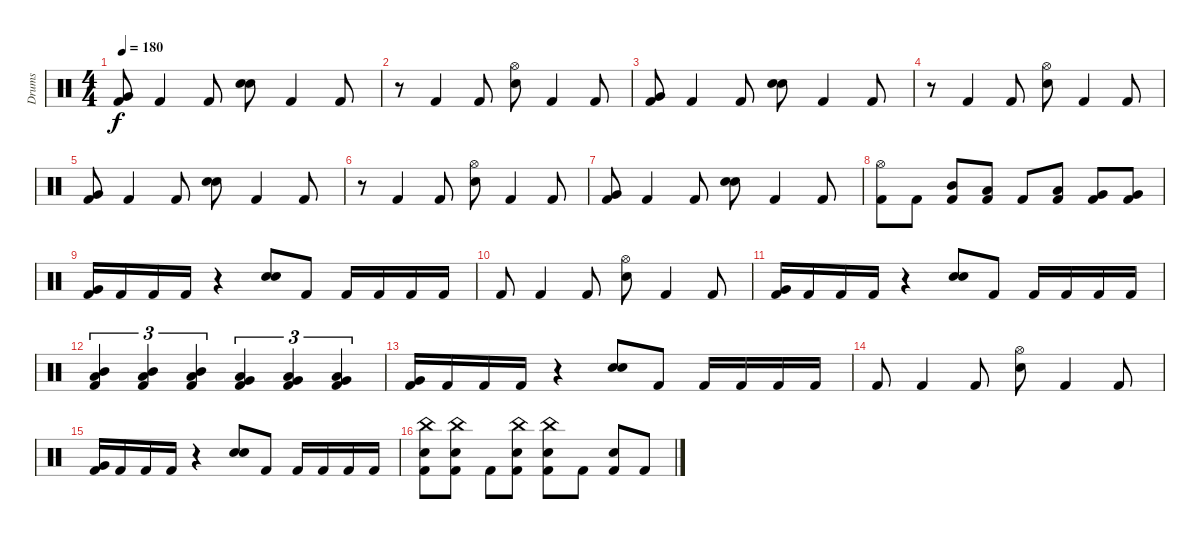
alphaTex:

\track ("Drums" "Drums") {instrument percussion}
\staff {score}
\articulation defaults
\ts (4 4)
\tempo 180
\clef neutral
\ks c
("Very Low Tom (hit)" "Kick (hit) 2").8{dy f} "Kick (hit) 2".4 "Kick (hit) 2".8 ("Electric Snare (hit)" "Electric Snare (hit)").8 "Kick (hit) 2".4 "Kick (hit) 2".8 |
r.8 "Kick (hit) 2".4 "Kick (hit) 2".8 ("Hi-Hat (open)" "Electric Snare (hit)").8 "Kick (hit) 2".4 "Kick (hit) 2".8 |
("Very Low Tom (hit)" "Kick (hit) 2").8 "Kick (hit) 2".4 "Kick (hit) 2".8 ("Electric Snare (hit)" "Electric Snare (hit)").8 "Kick (hit) 2".4 "Kick (hit) 2".8 |
r.8 "Kick (hit) 2".4 "Kick (hit) 2".8 ("Hi-Hat (open)" "Electric Snare (hit)").8 "Kick (hit) 2".4 "Kick (hit) 2".8 |
("Very Low Tom (hit)" "Kick (hit) 2").8 "Kick (hit) 2".4 "Kick (hit) 2".8 ("Electric Snare (hit)" "Electric Snare (hit)").8 "Kick (hit) 2".4 "Kick (hit) 2".8 |
r.8 "Kick (hit) 2".4 "Kick (hit) 2".8 ("Hi-Hat (open)" "Electric Snare (hit)").8 "Kick (hit) 2".4 "Kick (hit) 2".8 |
("Very Low Tom (hit)" "Kick (hit) 2").8 "Kick (hit) 2".4 "Kick (hit) 2".8 ("Electric Snare (hit)" "Electric Snare (hit)").8 "Kick (hit) 2".4 "Kick (hit) 2".8 |
("Hi-Hat (open)" "Kick (hit) 2").8 "Kick (hit) 2".8 ("Mid Tom (hit)" "Kick (hit) 2").8 ("Low Tom (hit)" "Kick (hit) 2").8 "Kick (hit) 2".8 ("Low Tom (hit)" "Kick (hit) 2").8 ("Very Low Tom (hit)" "Kick (hit) 2").8 ("Very Low Tom (hit)" "Kick (hit) 2").8 |
("Very Low Tom (hit)" "Kick (hit) 2").16 "Kick (hit) 2".16 "Kick (hit) 2".16 "Kick (hit) 2".16 r.4 ("Electric Snare (hit)" "Electric Snare (hit)").8 "Kick (hit) 2".8 "Kick (hit) 2".16 "Kick (hit) 2".16 "Kick (hit) 2".16 "Kick (hit) 2".16 |
"Kick (hit) 2".8 "Kick (hit) 2".4 "Kick (hit) 2".8 ("Hi-Hat (open)" "Electric Snare (hit)").8 "Kick (hit) 2".4 "Kick (hit) 2".8 |
("Very Low Tom (hit)" "Kick (hit) 2").16 "Kick (hit) 2".16 "Kick (hit) 2".16 "Kick (hit) 2".16 r.4 ("Electric Snare (hit)" "Electric Snare (hit)").8 "Kick (hit) 2".8 "Kick (hit) 2".16 "Kick (hit) 2".16 "Kick (hit) 2".16 "Kick (hit) 2".16 |
("Mid Tom (hit)" "Low Tom (hit)" "Kick (hit) 2").4{tu (3 2)} ("Mid Tom (hit)" "Low Tom (hit)" "Kick (hit) 2").4{tu (3 2)} ("Mid Tom (hit)" "Low Tom (hit)" "Kick (hit) 2").4{tu (3 2)} ("Low Tom (hit)" "Very Low Tom (hit)" "Kick (hit) 2").4{tu (3 2)} ("Low Tom (hit)" "Very Low Tom (hit)" "Kick (hit) 2").4{tu (3 2)} ("Low Tom (hit)" "Very Low Tom (hit)" "Kick (hit) 2").4{tu (3 2)} |
("Very Low Tom (hit)" "Kick (hit) 2").16 "Kick (hit) 2".16 "Kick (hit) 2".16 "Kick (hit) 2".16 r.4 ("Electric Snare (hit)" "Electric Snare (hit)").8 "Kick (hit) 2".8 "Kick (hit) 2".16 "Kick (hit) 2".16 "Kick (hit) 2".16 "Kick (hit) 2".16 |
"Kick (hit) 2".8 "Kick (hit) 2".4 "Kick (hit) 2".8 ("Hi-Hat (open)" "Electric Snare (hit)").8 "Kick (hit) 2".4 "Kick (hit) 2".8 |
("Very Low Tom (hit)" "Kick (hit) 2").16 "Kick (hit) 2".16 "Kick (hit) 2".16 "Kick (hit) 2".16 r.4 ("Electric Snare (hit)" "Electric Snare (hit)").8 "Kick (hit) 2".8 "Kick (hit) 2".16 "Kick (hit) 2".16 "Kick (hit) 2".16 "Kick (hit) 2".16 |
("China (hit)" "Electric Snare (hit)" "Kick (hit) 2").8 ("China (hit)" "Electric Snare (hit)" "Kick (hit) 2").8 "Kick (hit) 2".8 ("China (hit)" "Electric Snare (hit)" "Kick (hit) 2").8 ("China (hit)" "Electric Snare (hit)" "Kick (hit) 2").8 "Kick (hit) 2".8 ("Electric Snare (hit)" "Kick (hit) 2").8 "Kick (hit) 2".8
